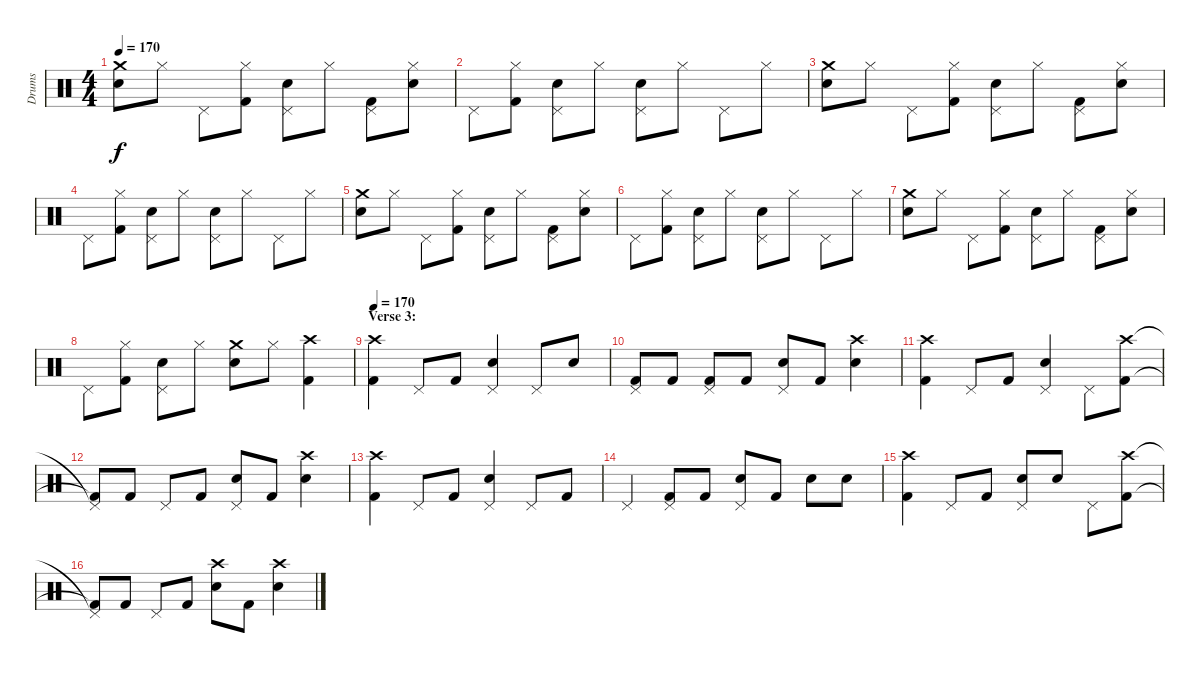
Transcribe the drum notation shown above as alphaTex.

\track ("Drums" "Drums") {instrument percussion}
\staff {score}
\articulation defaults
\ts (4 4)
\tempo 170
\clef neutral
\ks c
("Crash medium (hit)" "Electric Snare (hit)").8{dy f} "Hi-Hat (closed)".8 "Pedal Hi-Hat (hit)".8 ("Hi-Hat (closed)" "Kick (hit) 2").8 ("Pedal Hi-Hat (hit)" "Electric Snare (hit)").8 "Hi-Hat (closed)".8 ("Pedal Hi-Hat (hit)" "Kick (hit) 2").8 ("Hi-Hat (closed)" "Electric Snare (hit)").8 |
"Pedal Hi-Hat (hit)".8 ("Hi-Hat (closed)" "Kick (hit) 2").8 ("Pedal Hi-Hat (hit)" "Electric Snare (hit)").8 "Hi-Hat (closed)".8 ("Pedal Hi-Hat (hit)" "Electric Snare (hit)").8 "Hi-Hat (closed)".8 "Pedal Hi-Hat (hit)".8 "Hi-Hat (closed)".8 |
("Crash medium (hit)" "Electric Snare (hit)").8 "Hi-Hat (closed)".8 "Pedal Hi-Hat (hit)".8 ("Hi-Hat (closed)" "Kick (hit) 2").8 ("Pedal Hi-Hat (hit)" "Electric Snare (hit)").8 "Hi-Hat (closed)".8 ("Pedal Hi-Hat (hit)" "Kick (hit) 2").8 ("Hi-Hat (closed)" "Electric Snare (hit)").8 |
"Pedal Hi-Hat (hit)".8 ("Hi-Hat (closed)" "Kick (hit) 2").8 ("Pedal Hi-Hat (hit)" "Electric Snare (hit)").8 "Hi-Hat (closed)".8 ("Pedal Hi-Hat (hit)" "Electric Snare (hit)").8 "Hi-Hat (closed)".8 "Pedal Hi-Hat (hit)".8 "Hi-Hat (closed)".8 |
("Crash medium (hit)" "Electric Snare (hit)").8 "Hi-Hat (closed)".8 "Pedal Hi-Hat (hit)".8 ("Hi-Hat (closed)" "Kick (hit) 2").8 ("Pedal Hi-Hat (hit)" "Electric Snare (hit)").8 "Hi-Hat (closed)".8 ("Pedal Hi-Hat (hit)" "Kick (hit) 2").8 ("Hi-Hat (closed)" "Electric Snare (hit)").8 |
"Pedal Hi-Hat (hit)".8 ("Hi-Hat (closed)" "Kick (hit) 2").8 ("Pedal Hi-Hat (hit)" "Electric Snare (hit)").8 "Hi-Hat (closed)".8 ("Pedal Hi-Hat (hit)" "Electric Snare (hit)").8 "Hi-Hat (closed)".8 "Pedal Hi-Hat (hit)".8 "Hi-Hat (closed)".8 |
("Crash medium (hit)" "Electric Snare (hit)").8 "Hi-Hat (closed)".8 "Pedal Hi-Hat (hit)".8 ("Hi-Hat (closed)" "Kick (hit) 2").8 ("Pedal Hi-Hat (hit)" "Electric Snare (hit)").8 "Hi-Hat (closed)".8 ("Pedal Hi-Hat (hit)" "Kick (hit) 2").8 ("Hi-Hat (closed)" "Electric Snare (hit)").8 |
"Pedal Hi-Hat (hit)".8 ("Hi-Hat (closed)" "Kick (hit) 2").8 ("Pedal Hi-Hat (hit)" "Electric Snare (hit)").8 "Hi-Hat (closed)".8 ("Crash medium (hit)" "Electric Snare (hit)").8 "Hi-Hat (closed)".8 ("Crash high (hit)" "Kick (hit) 2").4 |
\section ("" "Verse 3:")
\tempo 170
("Crash high (hit)" "Kick (hit) 2").4 "Pedal Hi-Hat (hit)".8 "Kick (hit) 2".8 ("Pedal Hi-Hat (hit)" "Snare (hit) 2").4 "Pedal Hi-Hat (hit)".8 "Snare (hit) 2".8 |
("Pedal Hi-Hat (hit)" "Kick (hit) 2").8 "Kick (hit) 2".8 ("Pedal Hi-Hat (hit)" "Kick (hit) 2").8 "Kick (hit) 2".8 ("Pedal Hi-Hat (hit)" "Snare (hit) 2").8 "Kick (hit) 2".8 ("Crash high (hit)" "Snare (hit) 2").4 |
("Crash high (hit)" "Kick (hit) 2").4 "Pedal Hi-Hat (hit)".8 "Kick (hit) 2".8 ("Pedal Hi-Hat (hit)" "Snare (hit) 2").4 "Pedal Hi-Hat (hit)".8 ("Crash high (hit)" "Kick (hit) 2").8 |
("Pedal Hi-Hat (hit)"{t} "Kick (hit) 2"{t}).8 "Kick (hit) 2".8 "Pedal Hi-Hat (hit)".8 "Kick (hit) 2".8 ("Pedal Hi-Hat (hit)" "Snare (hit) 2").8 "Kick (hit) 2".8 ("Crash high (hit)" "Snare (hit) 2").4 |
("Crash high (hit)" "Kick (hit) 2").4 "Pedal Hi-Hat (hit)".8 "Kick (hit) 2".8 ("Pedal Hi-Hat (hit)" "Snare (hit) 2").4 "Pedal Hi-Hat (hit)".8 "Kick (hit) 2".8 |
"Pedal Hi-Hat (hit)".4 ("Pedal Hi-Hat (hit)" "Kick (hit) 2").8 "Kick (hit) 2".8 ("Pedal Hi-Hat (hit)" "Snare (hit) 2").8 "Kick (hit) 2".8 "Snare (hit) 2".8 "Snare (hit) 2".8 |
("Crash high (hit)" "Kick (hit) 2").4 "Pedal Hi-Hat (hit)".8 "Kick (hit) 2".8 ("Pedal Hi-Hat (hit)" "Snare (hit) 2").8 "Snare (hit) 2".8 "Pedal Hi-Hat (hit)".8 ("Crash high (hit)" "Kick (hit) 2").8 |
("Pedal Hi-Hat (hit)"{t} "Kick (hit) 2"{t}).8 "Kick (hit) 2".8 "Pedal Hi-Hat (hit)".8 "Kick (hit) 2".8 ("Crash high (hit)" "Snare (hit) 2").8 "Kick (hit) 2".8 ("Crash high (hit)" "Snare (hit) 2").4
